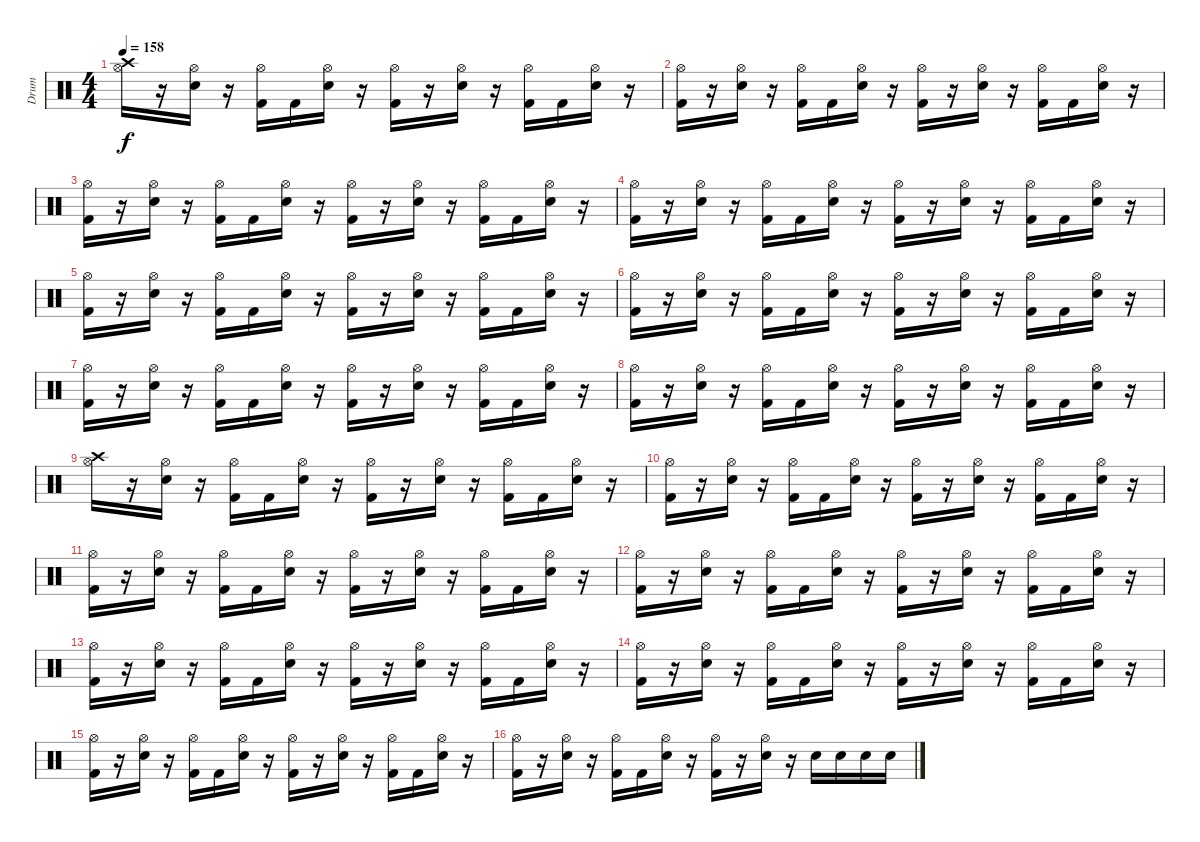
\track ("Drum" "Drum") {instrument percussion}
\staff {score}
\articulation defaults
\ts (4 4)
\tempo 158
\clef neutral
\ks c
("Hi-Hat (open)" "Crash high (hit)").16{dy f} r.16 ("Hi-Hat (open)" "Electric Snare (hit)").16 r.16 ("Hi-Hat (open)" "Kick (hit) 2").16 "Kick (hit) 2".16 ("Hi-Hat (open)" "Electric Snare (hit)").16 r.16 ("Hi-Hat (open)" "Kick (hit) 2").16 r.16 ("Hi-Hat (open)" "Electric Snare (hit)").16 r.16 ("Hi-Hat (open)" "Kick (hit) 2").16 "Kick (hit) 2".16 ("Hi-Hat (open)" "Electric Snare (hit)").16 r.16 |
("Hi-Hat (open)" "Kick (hit) 2").16 r.16 ("Hi-Hat (open)" "Electric Snare (hit)").16 r.16 ("Hi-Hat (open)" "Kick (hit) 2").16 "Kick (hit) 2".16 ("Hi-Hat (open)" "Electric Snare (hit)").16 r.16 ("Hi-Hat (open)" "Kick (hit) 2").16 r.16 ("Hi-Hat (open)" "Electric Snare (hit)").16 r.16 ("Hi-Hat (open)" "Kick (hit) 2").16 "Kick (hit) 2".16 ("Hi-Hat (open)" "Electric Snare (hit)").16 r.16 |
("Hi-Hat (open)" "Kick (hit) 2").16 r.16 ("Hi-Hat (open)" "Electric Snare (hit)").16 r.16 ("Hi-Hat (open)" "Kick (hit) 2").16 "Kick (hit) 2".16 ("Hi-Hat (open)" "Electric Snare (hit)").16 r.16 ("Hi-Hat (open)" "Kick (hit) 2").16 r.16 ("Hi-Hat (open)" "Electric Snare (hit)").16 r.16 ("Hi-Hat (open)" "Kick (hit) 2").16 "Kick (hit) 2".16 ("Hi-Hat (open)" "Electric Snare (hit)").16 r.16 |
("Hi-Hat (open)" "Kick (hit) 2").16 r.16 ("Hi-Hat (open)" "Electric Snare (hit)").16 r.16 ("Hi-Hat (open)" "Kick (hit) 2").16 "Kick (hit) 2".16 ("Hi-Hat (open)" "Electric Snare (hit)").16 r.16 ("Hi-Hat (open)" "Kick (hit) 2").16 r.16 ("Hi-Hat (open)" "Electric Snare (hit)").16 r.16 ("Hi-Hat (open)" "Kick (hit) 2").16 "Kick (hit) 2".16 ("Hi-Hat (open)" "Electric Snare (hit)").16 r.16 |
("Hi-Hat (open)" "Kick (hit) 2").16 r.16 ("Hi-Hat (open)" "Electric Snare (hit)").16 r.16 ("Hi-Hat (open)" "Kick (hit) 2").16 "Kick (hit) 2".16 ("Hi-Hat (open)" "Electric Snare (hit)").16 r.16 ("Hi-Hat (open)" "Kick (hit) 2").16 r.16 ("Hi-Hat (open)" "Electric Snare (hit)").16 r.16 ("Hi-Hat (open)" "Kick (hit) 2").16 "Kick (hit) 2".16 ("Hi-Hat (open)" "Electric Snare (hit)").16 r.16 |
("Hi-Hat (open)" "Kick (hit) 2").16 r.16 ("Hi-Hat (open)" "Electric Snare (hit)").16 r.16 ("Hi-Hat (open)" "Kick (hit) 2").16 "Kick (hit) 2".16 ("Hi-Hat (open)" "Electric Snare (hit)").16 r.16 ("Hi-Hat (open)" "Kick (hit) 2").16 r.16 ("Hi-Hat (open)" "Electric Snare (hit)").16 r.16 ("Hi-Hat (open)" "Kick (hit) 2").16 "Kick (hit) 2".16 ("Hi-Hat (open)" "Electric Snare (hit)").16 r.16 |
("Hi-Hat (open)" "Kick (hit) 2").16 r.16 ("Hi-Hat (open)" "Electric Snare (hit)").16 r.16 ("Hi-Hat (open)" "Kick (hit) 2").16 "Kick (hit) 2".16 ("Hi-Hat (open)" "Electric Snare (hit)").16 r.16 ("Hi-Hat (open)" "Kick (hit) 2").16 r.16 ("Hi-Hat (open)" "Electric Snare (hit)").16 r.16 ("Hi-Hat (open)" "Kick (hit) 2").16 "Kick (hit) 2".16 ("Hi-Hat (open)" "Electric Snare (hit)").16 r.16 |
("Hi-Hat (open)" "Kick (hit) 2").16 r.16 ("Hi-Hat (open)" "Electric Snare (hit)").16 r.16 ("Hi-Hat (open)" "Kick (hit) 2").16 "Kick (hit) 2".16 ("Hi-Hat (open)" "Electric Snare (hit)").16 r.16 ("Hi-Hat (open)" "Kick (hit) 2").16 r.16 ("Hi-Hat (open)" "Electric Snare (hit)").16 r.16 ("Hi-Hat (open)" "Kick (hit) 2").16 "Kick (hit) 2".16 ("Hi-Hat (open)" "Electric Snare (hit)").16 r.16 |
("Hi-Hat (open)" "Crash high (hit)").16 r.16 ("Hi-Hat (open)" "Electric Snare (hit)").16 r.16 ("Hi-Hat (open)" "Kick (hit) 2").16 "Kick (hit) 2".16 ("Hi-Hat (open)" "Electric Snare (hit)").16 r.16 ("Hi-Hat (open)" "Kick (hit) 2").16 r.16 ("Hi-Hat (open)" "Electric Snare (hit)").16 r.16 ("Hi-Hat (open)" "Kick (hit) 2").16 "Kick (hit) 2".16 ("Hi-Hat (open)" "Electric Snare (hit)").16 r.16 |
("Hi-Hat (open)" "Kick (hit) 2").16 r.16 ("Hi-Hat (open)" "Electric Snare (hit)").16 r.16 ("Hi-Hat (open)" "Kick (hit) 2").16 "Kick (hit) 2".16 ("Hi-Hat (open)" "Electric Snare (hit)").16 r.16 ("Hi-Hat (open)" "Kick (hit) 2").16 r.16 ("Hi-Hat (open)" "Electric Snare (hit)").16 r.16 ("Hi-Hat (open)" "Kick (hit) 2").16 "Kick (hit) 2".16 ("Hi-Hat (open)" "Electric Snare (hit)").16 r.16 |
("Hi-Hat (open)" "Kick (hit) 2").16 r.16 ("Hi-Hat (open)" "Electric Snare (hit)").16 r.16 ("Hi-Hat (open)" "Kick (hit) 2").16 "Kick (hit) 2".16 ("Hi-Hat (open)" "Electric Snare (hit)").16 r.16 ("Hi-Hat (open)" "Kick (hit) 2").16 r.16 ("Hi-Hat (open)" "Electric Snare (hit)").16 r.16 ("Hi-Hat (open)" "Kick (hit) 2").16 "Kick (hit) 2".16 ("Hi-Hat (open)" "Electric Snare (hit)").16 r.16 |
("Hi-Hat (open)" "Kick (hit) 2").16 r.16 ("Hi-Hat (open)" "Electric Snare (hit)").16 r.16 ("Hi-Hat (open)" "Kick (hit) 2").16 "Kick (hit) 2".16 ("Hi-Hat (open)" "Electric Snare (hit)").16 r.16 ("Hi-Hat (open)" "Kick (hit) 2").16 r.16 ("Hi-Hat (open)" "Electric Snare (hit)").16 r.16 ("Hi-Hat (open)" "Kick (hit) 2").16 "Kick (hit) 2".16 ("Hi-Hat (open)" "Electric Snare (hit)").16 r.16 |
("Hi-Hat (open)" "Kick (hit) 2").16 r.16 ("Hi-Hat (open)" "Electric Snare (hit)").16 r.16 ("Hi-Hat (open)" "Kick (hit) 2").16 "Kick (hit) 2".16 ("Hi-Hat (open)" "Electric Snare (hit)").16 r.16 ("Hi-Hat (open)" "Kick (hit) 2").16 r.16 ("Hi-Hat (open)" "Electric Snare (hit)").16 r.16 ("Hi-Hat (open)" "Kick (hit) 2").16 "Kick (hit) 2".16 ("Hi-Hat (open)" "Electric Snare (hit)").16 r.16 |
("Hi-Hat (open)" "Kick (hit) 2").16 r.16 ("Hi-Hat (open)" "Electric Snare (hit)").16 r.16 ("Hi-Hat (open)" "Kick (hit) 2").16 "Kick (hit) 2".16 ("Hi-Hat (open)" "Electric Snare (hit)").16 r.16 ("Hi-Hat (open)" "Kick (hit) 2").16 r.16 ("Hi-Hat (open)" "Electric Snare (hit)").16 r.16 ("Hi-Hat (open)" "Kick (hit) 2").16 "Kick (hit) 2".16 ("Hi-Hat (open)" "Electric Snare (hit)").16 r.16 |
("Hi-Hat (open)" "Kick (hit) 2").16 r.16 ("Hi-Hat (open)" "Electric Snare (hit)").16 r.16 ("Hi-Hat (open)" "Kick (hit) 2").16 "Kick (hit) 2".16 ("Hi-Hat (open)" "Electric Snare (hit)").16 r.16 ("Hi-Hat (open)" "Kick (hit) 2").16 r.16 ("Hi-Hat (open)" "Electric Snare (hit)").16 r.16 ("Hi-Hat (open)" "Kick (hit) 2").16 "Kick (hit) 2".16 ("Hi-Hat (open)" "Electric Snare (hit)").16 r.16 |
("Hi-Hat (open)" "Kick (hit) 2").16 r.16 ("Hi-Hat (open)" "Electric Snare (hit)").16 r.16 ("Hi-Hat (open)" "Kick (hit) 2").16 "Kick (hit) 2".16 ("Hi-Hat (open)" "Electric Snare (hit)").16 r.16 ("Hi-Hat (open)" "Kick (hit) 2").16 r.16 ("Hi-Hat (open)" "Electric Snare (hit)").16 r.16 "Electric Snare (hit)".16 "Electric Snare (hit)".16 "Electric Snare (hit)".16 "Electric Snare (hit)".16
